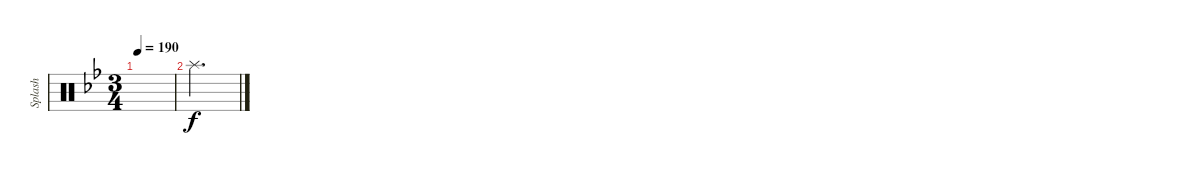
\track ("Splash" "Splash") {instrument percussion}
\staff {score}
\articulation defaults
\ts (3 4)
\tempo 190
\clef neutral
\ks bb
|
"Splash (hit)".2{d}
